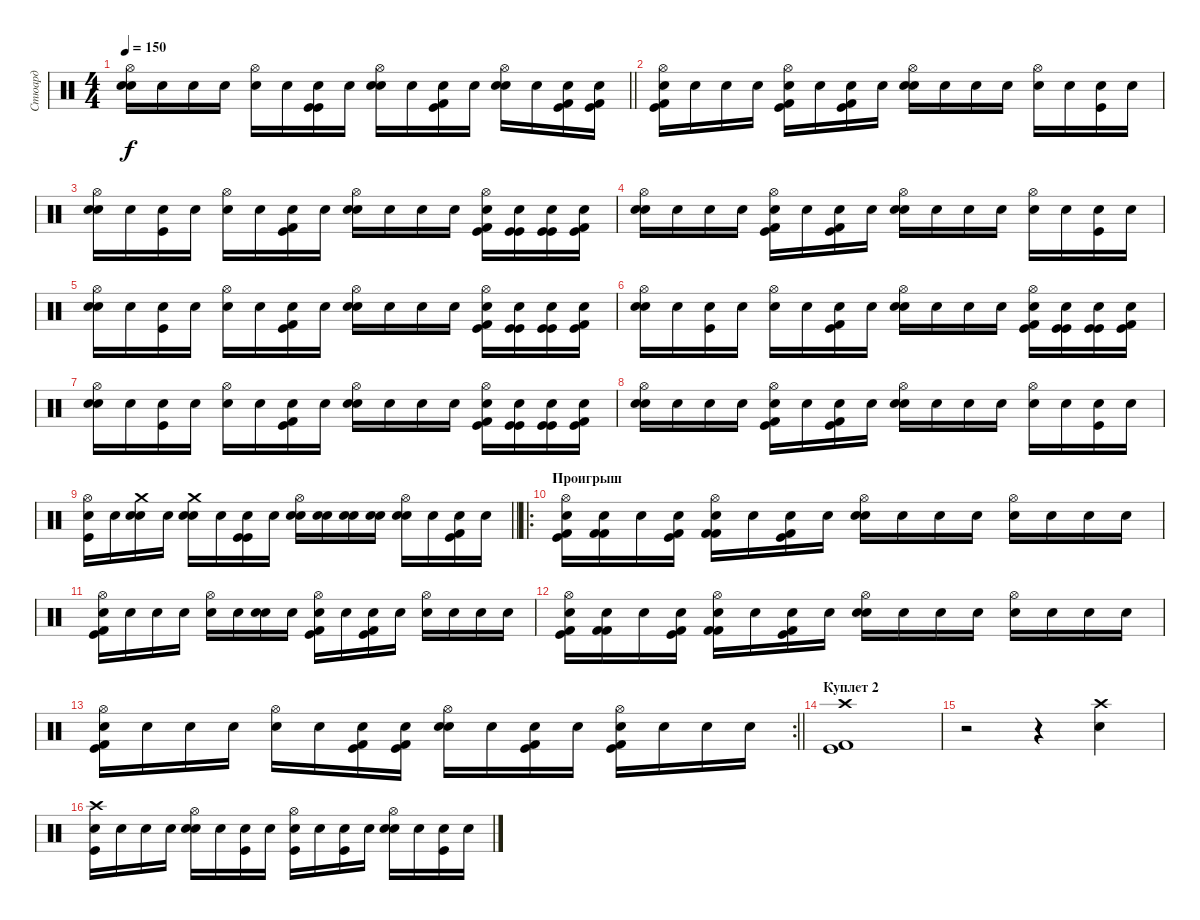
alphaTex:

\track ("Стюард" "Стюард") {instrument percussion}
\staff {score}
\articulation defaults
\ts (4 4)
\tempo 150
\clef neutral
\barLineRight lightlight
\ks c
("Hi-Hat (open)" "Snare (hit) 2" "Snare (hit)"{x}).16{dy f} "Snare (hit)"{x}.16 "Snare (hit)"{x}.16 "Snare (hit)"{x}.16 ("Hi-Hat (open)" "Snare (hit)"{x}).16 "Snare (hit)"{x}.16 ("Kick (hit)" "Kick (hit)" "Snare (hit)"{x}).16 "Snare (hit)"{x}.16 ("Hi-Hat (open)" "Snare (hit) 2" "Snare (hit)"{x}).16 "Snare (hit)"{x}.16 ("Kick (hit) 2" "Kick (hit)" "Snare (hit)"{x}).16 "Snare (hit)"{x}.16 ("Hi-Hat (open)" "Snare (hit) 2" "Snare (hit)"{x}).16 "Snare (hit)"{x}.16 ("Kick (hit) 2" "Kick (hit)" "Snare (hit)"{x}).16 ("Kick (hit) 2" "Kick (hit)" "Snare (hit)"{x}).16 |
\section ("" "")
("Hi-Hat (open)" "Kick (hit)" "Kick (hit) 2" "Snare (hit)"{x}).16 "Snare (hit)"{x}.16 "Snare (hit)"{x}.16 "Snare (hit)"{x}.16 ("Hi-Hat (open)" "Kick (hit) 2" "Kick (hit)" "Snare (hit)"{x}).16 "Snare (hit)"{x}.16 ("Kick (hit) 2" "Kick (hit)" "Snare (hit)"{x}).16 "Snare (hit)"{x}.16 ("Hi-Hat (open)" "Snare (hit) 2" "Snare (hit)"{x}).16 "Snare (hit)"{x}.16 "Snare (hit)"{x}.16 "Snare (hit)"{x}.16 ("Hi-Hat (open)" "Snare (hit)"{x}).16 "Snare (hit)"{x}.16 ("Kick (hit)" "Snare (hit)"{x}).16 "Snare (hit)"{x}.16 |
("Hi-Hat (open)" "Snare (hit) 2" "Snare (hit)"{x}).16 "Snare (hit)"{x}.16 ("Kick (hit)" "Snare (hit)"{x}).16 "Snare (hit)"{x}.16 ("Hi-Hat (open)" "Snare (hit)"{x}).16 "Snare (hit)"{x}.16 ("Kick (hit) 2" "Kick (hit)" "Snare (hit)"{x}).16 "Snare (hit)"{x}.16 ("Hi-Hat (open)" "Snare (hit) 2" "Snare (hit)"{x}).16 "Snare (hit)"{x}.16 "Snare (hit)"{x}.16 "Snare (hit)"{x}.16 ("Hi-Hat (open)" "Kick (hit) 2" "Kick (hit)" "Snare (hit)"{x}).16 ("Kick (hit)" "Kick (hit)" "Snare (hit)"{x}).16 ("Kick (hit)" "Kick (hit)" "Snare (hit)"{x}).16 ("Kick (hit) 2" "Kick (hit)" "Snare (hit)"{x}).16 |
("Hi-Hat (open)" "Snare (hit) 2" "Snare (hit)"{x}).16 "Snare (hit)"{x}.16 "Snare (hit)"{x}.16 "Snare (hit)"{x}.16 ("Hi-Hat (open)" "Kick (hit) 2" "Kick (hit)" "Snare (hit)"{x}).16 "Snare (hit)"{x}.16 ("Kick (hit) 2" "Kick (hit)" "Snare (hit)"{x}).16 "Snare (hit)"{x}.16 ("Hi-Hat (open)" "Snare (hit) 2" "Snare (hit)"{x}).16 "Snare (hit)"{x}.16 "Snare (hit)"{x}.16 "Snare (hit)"{x}.16 ("Hi-Hat (open)" "Snare (hit)"{x}).16 "Snare (hit)"{x}.16 ("Kick (hit)" "Snare (hit)"{x}).16 "Snare (hit)"{x}.16 |
("Hi-Hat (open)" "Snare (hit) 2" "Snare (hit)"{x}).16 "Snare (hit)"{x}.16 ("Kick (hit)" "Snare (hit)"{x}).16 "Snare (hit)"{x}.16 ("Hi-Hat (open)" "Snare (hit)"{x}).16 "Snare (hit)"{x}.16 ("Kick (hit) 2" "Kick (hit)" "Snare (hit)"{x}).16 "Snare (hit)"{x}.16 ("Hi-Hat (open)" "Snare (hit) 2" "Snare (hit)"{x}).16 "Snare (hit)"{x}.16 "Snare (hit)"{x}.16 "Snare (hit)"{x}.16 ("Hi-Hat (open)" "Kick (hit) 2" "Kick (hit)" "Snare (hit)"{x}).16 ("Kick (hit)" "Kick (hit)" "Snare (hit)"{x}).16 ("Kick (hit)" "Kick (hit)" "Snare (hit)"{x}).16 ("Kick (hit) 2" "Kick (hit)" "Snare (hit)"{x}).16 |
("Hi-Hat (open)" "Snare (hit) 2" "Snare (hit)"{x}).16 "Snare (hit)"{x}.16 ("Kick (hit)" "Snare (hit)"{x}).16 "Snare (hit)"{x}.16 ("Hi-Hat (open)" "Snare (hit)"{x}).16 "Snare (hit)"{x}.16 ("Kick (hit) 2" "Kick (hit)" "Snare (hit)"{x}).16 "Snare (hit)"{x}.16 ("Hi-Hat (open)" "Snare (hit) 2" "Snare (hit)"{x}).16 "Snare (hit)"{x}.16 "Snare (hit)"{x}.16 "Snare (hit)"{x}.16 ("Hi-Hat (open)" "Kick (hit) 2" "Kick (hit)" "Snare (hit)"{x}).16 ("Kick (hit)" "Kick (hit)" "Snare (hit)"{x}).16 ("Kick (hit)" "Kick (hit)" "Snare (hit)"{x}).16 ("Kick (hit) 2" "Kick (hit)" "Snare (hit)"{x}).16 |
("Hi-Hat (open)" "Snare (hit) 2" "Snare (hit)"{x}).16 "Snare (hit)"{x}.16 ("Kick (hit)" "Snare (hit)"{x}).16 "Snare (hit)"{x}.16 ("Hi-Hat (open)" "Snare (hit)"{x}).16 "Snare (hit)"{x}.16 ("Kick (hit) 2" "Kick (hit)" "Snare (hit)"{x}).16 "Snare (hit)"{x}.16 ("Hi-Hat (open)" "Snare (hit) 2" "Snare (hit)"{x}).16 "Snare (hit)"{x}.16 "Snare (hit)"{x}.16 "Snare (hit)"{x}.16 ("Hi-Hat (open)" "Kick (hit) 2" "Kick (hit)" "Snare (hit)"{x}).16 ("Kick (hit)" "Kick (hit)" "Snare (hit)"{x}).16 ("Kick (hit)" "Kick (hit)" "Snare (hit)"{x}).16 ("Kick (hit) 2" "Kick (hit)" "Snare (hit)"{x}).16 |
("Hi-Hat (open)" "Snare (hit) 2" "Snare (hit)"{x}).16 "Snare (hit)"{x}.16 "Snare (hit)"{x}.16 "Snare (hit)"{x}.16 ("Hi-Hat (open)" "Kick (hit) 2" "Kick (hit)" "Snare (hit)"{x}).16 "Snare (hit)"{x}.16 ("Kick (hit) 2" "Kick (hit)" "Snare (hit)"{x}).16 "Snare (hit)"{x}.16 ("Hi-Hat (open)" "Snare (hit) 2" "Snare (hit)"{x}).16 "Snare (hit)"{x}.16 "Snare (hit)"{x}.16 "Snare (hit)"{x}.16 ("Hi-Hat (open)" "Snare (hit)"{x}).16 "Snare (hit)"{x}.16 ("Kick (hit)" "Snare (hit)"{x}).16 "Snare (hit)"{x}.16 |
\barLineRight lightlight
("Hi-Hat (open)" "Kick (hit)" "Snare (hit)"{x}).16 "Snare (hit)"{x}.16 ("Crash medium (hit)" "Snare (hit) 2" "Snare (hit)"{x}).16 "Snare (hit)"{x}.16 ("Crash medium (hit)" "Snare (hit) 2" "Snare (hit)"{x}).16 "Snare (hit)"{x}.16 ("Kick (hit)" "Kick (hit)" "Snare (hit)"{x}).16 "Snare (hit)"{x}.16 ("Hi-Hat (open)" "Snare (hit) 2" "Snare (hit)"{x}).16 ("Snare (hit) 2" "Snare (hit)"{x}).16 ("Snare (hit) 2" "Snare (hit)"{x}).16 ("Snare (hit) 2" "Snare (hit)"{x}).16 ("Hi-Hat (open)" "Snare (hit) 2" "Snare (hit)"{x}).16 "Snare (hit)"{x}.16 ("Kick (hit) 2" "Kick (hit)" "Snare (hit)"{x}).16 "Snare (hit)"{x}.16 |
\ro
\section ("" "Проигрыш")
("Hi-Hat (open)" "Kick (hit) 2" "Kick (hit)" "Snare (hit)"{x}).16 ("Kick (hit) 2" "Kick (hit) 2" "Snare (hit)"{x}).16 "Snare (hit)"{x}.16 ("Kick (hit) 2" "Kick (hit)" "Snare (hit)"{x}).16 ("Hi-Hat (open)" "Kick (hit) 2" "Kick (hit) 2" "Snare (hit)"{x}).16 "Snare (hit)"{x}.16 ("Kick (hit) 2" "Kick (hit)" "Snare (hit)"{x}).16 "Snare (hit)"{x}.16 ("Hi-Hat (open)" "Snare (hit) 2" "Snare (hit)"{x}).16 "Snare (hit)"{x}.16 "Snare (hit)"{x}.16 "Snare (hit)"{x}.16 ("Hi-Hat (open)" "Snare (hit)"{x}).16 "Snare (hit)"{x}.16 "Snare (hit)"{x}.16 "Snare (hit)"{x}.16 |
("Hi-Hat (open)" "Kick (hit) 2" "Kick (hit)" "Snare (hit)"{x}).16 "Snare (hit)"{x}.16 "Snare (hit)"{x}.16 "Snare (hit)"{x}.16 ("Hi-Hat (open)" "Snare (hit)"{x}).16 "Snare (hit)"{x}.16 ("Snare (hit) 2" "Snare (hit)"{x}).16 "Snare (hit)"{x}.16 ("Hi-Hat (open)" "Kick (hit) 2" "Kick (hit)" "Snare (hit)"{x}).16 "Snare (hit)"{x}.16 ("Kick (hit) 2" "Kick (hit)" "Snare (hit)"{x}).16 "Snare (hit)"{x}.16 ("Hi-Hat (open)" "Snare (hit)"{x}).16 "Snare (hit)"{x}.16 "Snare (hit)"{x}.16 "Snare (hit)"{x}.16 |
("Hi-Hat (open)" "Kick (hit) 2" "Kick (hit)" "Snare (hit)"{x}).16 ("Kick (hit) 2" "Kick (hit) 2" "Snare (hit)"{x}).16 "Snare (hit)"{x}.16 ("Kick (hit) 2" "Kick (hit)" "Snare (hit)"{x}).16 ("Hi-Hat (open)" "Kick (hit) 2" "Kick (hit) 2" "Snare (hit)"{x}).16 "Snare (hit)"{x}.16 ("Kick (hit) 2" "Kick (hit)" "Snare (hit)"{x}).16 "Snare (hit)"{x}.16 ("Hi-Hat (open)" "Snare (hit) 2" "Snare (hit)"{x}).16 "Snare (hit)"{x}.16 "Snare (hit)"{x}.16 "Snare (hit)"{x}.16 ("Hi-Hat (open)" "Snare (hit)"{x}).16 "Snare (hit)"{x}.16 "Snare (hit)"{x}.16 "Snare (hit)"{x}.16 |
\rc 2
\barLineRight lightlight
("Hi-Hat (open)" "Kick (hit) 2" "Kick (hit)" "Snare (hit)"{x}).16 "Snare (hit)"{x}.16 "Snare (hit)"{x}.16 "Snare (hit)"{x}.16 ("Hi-Hat (open)" "Snare (hit)"{x}).16 "Snare (hit)"{x}.16 ("Kick (hit) 2" "Kick (hit)" "Snare (hit)"{x}).16 ("Kick (hit) 2" "Kick (hit)" "Snare (hit)"{x}).16 ("Hi-Hat (open)" "Snare (hit) 2" "Snare (hit)"{x}).16 "Snare (hit)"{x}.16 ("Kick (hit) 2" "Kick (hit)" "Snare (hit)"{x}).16 "Snare (hit)"{x}.16 ("Hi-Hat (open)" "Kick (hit) 2" "Kick (hit)" "Snare (hit)"{x}).16 "Snare (hit)"{x}.16 "Snare (hit)"{x}.16 "Snare (hit)"{x}.16 |
\section ("" "Куплет 2")
("Kick (hit) 2" "Kick (hit)" "Crash high (hit)").1 |
r.2 r.4 ("Crash high (hit)" "Snare (hit) 2").4 |
("Crash high (hit)" "Kick (hit)" "Snare (hit)"{x}).16 "Snare (hit)"{x}.16 "Snare (hit)"{x}.16 "Snare (hit)"{x}.16 ("Hi-Hat (open)" "Snare (hit) 2" "Snare (hit)"{x}).16 "Snare (hit)"{x}.16 ("Kick (hit)" "Snare (hit)"{x}).16 "Snare (hit)"{x}.16 ("Hi-Hat (open)" "Kick (hit)" "Snare (hit)"{x}).16 "Snare (hit)"{x}.16 ("Kick (hit)" "Snare (hit)"{x}).16 "Snare (hit)"{x}.16 ("Hi-Hat (open)" "Snare (hit) 2" "Snare (hit)"{x}).16 "Snare (hit)"{x}.16 ("Kick (hit)" "Snare (hit)"{x}).16 "Snare (hit)"{x}.16
